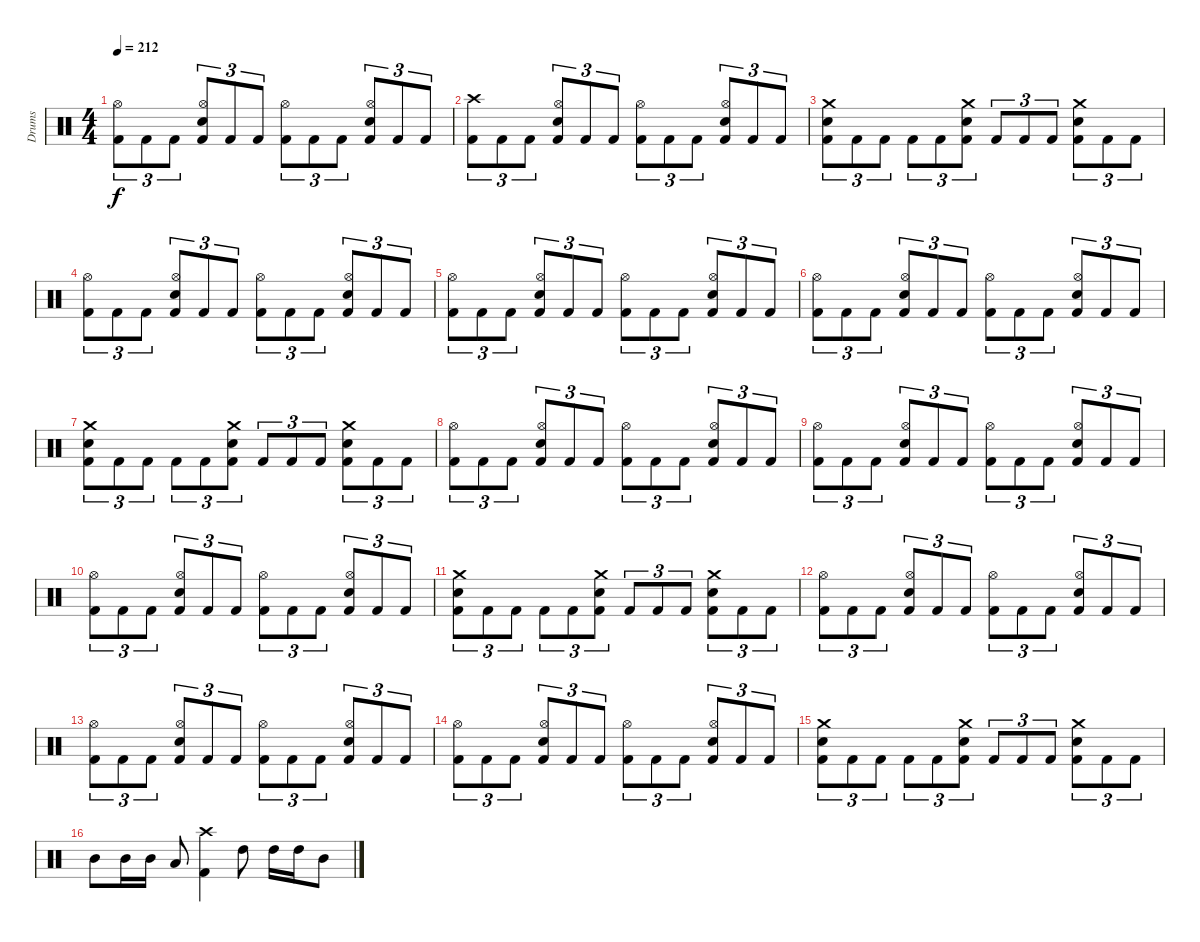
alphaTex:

\track ("Drums" "Drums") {instrument percussion}
\staff {score}
\articulation defaults
\ts (4 4)
\tempo 212
\clef neutral
\ks c
("Kick (hit) 2" "Hi-Hat (open)").8{tu (3 2) dy f} "Kick (hit) 2".8{tu (3 2)} "Kick (hit) 2".8{tu (3 2)} ("Kick (hit) 2" "Snare (hit) 2" "Hi-Hat (open)").8{tu (3 2)} "Kick (hit) 2".8{tu (3 2)} "Kick (hit) 2".8{tu (3 2)} ("Kick (hit) 2" "Hi-Hat (open)").8{tu (3 2)} "Kick (hit) 2".8{tu (3 2)} "Kick (hit) 2".8{tu (3 2)} ("Kick (hit) 2" "Snare (hit) 2" "Hi-Hat (open)").8{tu (3 2)} "Kick (hit) 2".8{tu (3 2)} "Kick (hit) 2".8{tu (3 2)} |
("Kick (hit) 2" "Crash high (hit)").8{tu (3 2)} "Kick (hit) 2".8{tu (3 2)} "Kick (hit) 2".8{tu (3 2)} ("Kick (hit) 2" "Snare (hit) 2" "Hi-Hat (open)").8{tu (3 2)} "Kick (hit) 2".8{tu (3 2)} "Kick (hit) 2".8{tu (3 2)} ("Kick (hit) 2" "Hi-Hat (open)").8{tu (3 2)} "Kick (hit) 2".8{tu (3 2)} "Kick (hit) 2".8{tu (3 2)} ("Kick (hit) 2" "Snare (hit) 2" "Hi-Hat (open)").8{tu (3 2)} "Kick (hit) 2".8{tu (3 2)} "Kick (hit) 2".8{tu (3 2)} |
("Kick (hit) 2" "Snare (hit) 2" "Crash medium (hit)").8{tu (3 2)} "Kick (hit) 2".8{tu (3 2)} "Kick (hit) 2".8{tu (3 2)} "Kick (hit) 2".8{tu (3 2)} "Kick (hit) 2".8{tu (3 2)} ("Kick (hit) 2" "Snare (hit) 2" "Crash medium (hit)").8{tu (3 2)} "Kick (hit) 2".8{tu (3 2)} "Kick (hit) 2".8{tu (3 2)} "Kick (hit) 2".8{tu (3 2)} ("Kick (hit) 2" "Snare (hit) 2" "Crash medium (hit)").8{tu (3 2)} "Kick (hit) 2".8{tu (3 2)} "Kick (hit) 2".8{tu (3 2)} |
("Kick (hit) 2" "Hi-Hat (open)").8{tu (3 2)} "Kick (hit) 2".8{tu (3 2)} "Kick (hit) 2".8{tu (3 2)} ("Kick (hit) 2" "Snare (hit) 2" "Hi-Hat (open)").8{tu (3 2)} "Kick (hit) 2".8{tu (3 2)} "Kick (hit) 2".8{tu (3 2)} ("Kick (hit) 2" "Hi-Hat (open)").8{tu (3 2)} "Kick (hit) 2".8{tu (3 2)} "Kick (hit) 2".8{tu (3 2)} ("Kick (hit) 2" "Snare (hit) 2" "Hi-Hat (open)").8{tu (3 2)} "Kick (hit) 2".8{tu (3 2)} "Kick (hit) 2".8{tu (3 2)} |
("Kick (hit) 2" "Hi-Hat (open)").8{tu (3 2)} "Kick (hit) 2".8{tu (3 2)} "Kick (hit) 2".8{tu (3 2)} ("Kick (hit) 2" "Snare (hit) 2" "Hi-Hat (open)").8{tu (3 2)} "Kick (hit) 2".8{tu (3 2)} "Kick (hit) 2".8{tu (3 2)} ("Kick (hit) 2" "Hi-Hat (open)").8{tu (3 2)} "Kick (hit) 2".8{tu (3 2)} "Kick (hit) 2".8{tu (3 2)} ("Kick (hit) 2" "Snare (hit) 2" "Hi-Hat (open)").8{tu (3 2)} "Kick (hit) 2".8{tu (3 2)} "Kick (hit) 2".8{tu (3 2)} |
("Kick (hit) 2" "Hi-Hat (open)").8{tu (3 2)} "Kick (hit) 2".8{tu (3 2)} "Kick (hit) 2".8{tu (3 2)} ("Kick (hit) 2" "Snare (hit) 2" "Hi-Hat (open)").8{tu (3 2)} "Kick (hit) 2".8{tu (3 2)} "Kick (hit) 2".8{tu (3 2)} ("Kick (hit) 2" "Hi-Hat (open)").8{tu (3 2)} "Kick (hit) 2".8{tu (3 2)} "Kick (hit) 2".8{tu (3 2)} ("Kick (hit) 2" "Snare (hit) 2" "Hi-Hat (open)").8{tu (3 2)} "Kick (hit) 2".8{tu (3 2)} "Kick (hit) 2".8{tu (3 2)} |
("Kick (hit) 2" "Snare (hit) 2" "Crash medium (hit)").8{tu (3 2)} "Kick (hit) 2".8{tu (3 2)} "Kick (hit) 2".8{tu (3 2)} "Kick (hit) 2".8{tu (3 2)} "Kick (hit) 2".8{tu (3 2)} ("Kick (hit) 2" "Snare (hit) 2" "Crash medium (hit)").8{tu (3 2)} "Kick (hit) 2".8{tu (3 2)} "Kick (hit) 2".8{tu (3 2)} "Kick (hit) 2".8{tu (3 2)} ("Kick (hit) 2" "Snare (hit) 2" "Crash medium (hit)").8{tu (3 2)} "Kick (hit) 2".8{tu (3 2)} "Kick (hit) 2".8{tu (3 2)} |
("Kick (hit) 2" "Hi-Hat (open)").8{tu (3 2)} "Kick (hit) 2".8{tu (3 2)} "Kick (hit) 2".8{tu (3 2)} ("Kick (hit) 2" "Snare (hit) 2" "Hi-Hat (open)").8{tu (3 2)} "Kick (hit) 2".8{tu (3 2)} "Kick (hit) 2".8{tu (3 2)} ("Kick (hit) 2" "Hi-Hat (open)").8{tu (3 2)} "Kick (hit) 2".8{tu (3 2)} "Kick (hit) 2".8{tu (3 2)} ("Kick (hit) 2" "Snare (hit) 2" "Hi-Hat (open)").8{tu (3 2)} "Kick (hit) 2".8{tu (3 2)} "Kick (hit) 2".8{tu (3 2)} |
("Kick (hit) 2" "Hi-Hat (open)").8{tu (3 2)} "Kick (hit) 2".8{tu (3 2)} "Kick (hit) 2".8{tu (3 2)} ("Kick (hit) 2" "Snare (hit) 2" "Hi-Hat (open)").8{tu (3 2)} "Kick (hit) 2".8{tu (3 2)} "Kick (hit) 2".8{tu (3 2)} ("Kick (hit) 2" "Hi-Hat (open)").8{tu (3 2)} "Kick (hit) 2".8{tu (3 2)} "Kick (hit) 2".8{tu (3 2)} ("Kick (hit) 2" "Snare (hit) 2" "Hi-Hat (open)").8{tu (3 2)} "Kick (hit) 2".8{tu (3 2)} "Kick (hit) 2".8{tu (3 2)} |
("Kick (hit) 2" "Hi-Hat (open)").8{tu (3 2)} "Kick (hit) 2".8{tu (3 2)} "Kick (hit) 2".8{tu (3 2)} ("Kick (hit) 2" "Snare (hit) 2" "Hi-Hat (open)").8{tu (3 2)} "Kick (hit) 2".8{tu (3 2)} "Kick (hit) 2".8{tu (3 2)} ("Kick (hit) 2" "Hi-Hat (open)").8{tu (3 2)} "Kick (hit) 2".8{tu (3 2)} "Kick (hit) 2".8{tu (3 2)} ("Kick (hit) 2" "Snare (hit) 2" "Hi-Hat (open)").8{tu (3 2)} "Kick (hit) 2".8{tu (3 2)} "Kick (hit) 2".8{tu (3 2)} |
("Kick (hit) 2" "Snare (hit) 2" "Crash medium (hit)").8{tu (3 2)} "Kick (hit) 2".8{tu (3 2)} "Kick (hit) 2".8{tu (3 2)} "Kick (hit) 2".8{tu (3 2)} "Kick (hit) 2".8{tu (3 2)} ("Kick (hit) 2" "Snare (hit) 2" "Crash medium (hit)").8{tu (3 2)} "Kick (hit) 2".8{tu (3 2)} "Kick (hit) 2".8{tu (3 2)} "Kick (hit) 2".8{tu (3 2)} ("Kick (hit) 2" "Snare (hit) 2" "Crash medium (hit)").8{tu (3 2)} "Kick (hit) 2".8{tu (3 2)} "Kick (hit) 2".8{tu (3 2)} |
("Kick (hit) 2" "Hi-Hat (open)").8{tu (3 2)} "Kick (hit) 2".8{tu (3 2)} "Kick (hit) 2".8{tu (3 2)} ("Kick (hit) 2" "Snare (hit) 2" "Hi-Hat (open)").8{tu (3 2)} "Kick (hit) 2".8{tu (3 2)} "Kick (hit) 2".8{tu (3 2)} ("Kick (hit) 2" "Hi-Hat (open)").8{tu (3 2)} "Kick (hit) 2".8{tu (3 2)} "Kick (hit) 2".8{tu (3 2)} ("Kick (hit) 2" "Snare (hit) 2" "Hi-Hat (open)").8{tu (3 2)} "Kick (hit) 2".8{tu (3 2)} "Kick (hit) 2".8{tu (3 2)} |
("Kick (hit) 2" "Hi-Hat (open)").8{tu (3 2)} "Kick (hit) 2".8{tu (3 2)} "Kick (hit) 2".8{tu (3 2)} ("Kick (hit) 2" "Snare (hit) 2" "Hi-Hat (open)").8{tu (3 2)} "Kick (hit) 2".8{tu (3 2)} "Kick (hit) 2".8{tu (3 2)} ("Kick (hit) 2" "Hi-Hat (open)").8{tu (3 2)} "Kick (hit) 2".8{tu (3 2)} "Kick (hit) 2".8{tu (3 2)} ("Kick (hit) 2" "Snare (hit) 2" "Hi-Hat (open)").8{tu (3 2)} "Kick (hit) 2".8{tu (3 2)} "Kick (hit) 2".8{tu (3 2)} |
("Kick (hit) 2" "Hi-Hat (open)").8{tu (3 2)} "Kick (hit) 2".8{tu (3 2)} "Kick (hit) 2".8{tu (3 2)} ("Kick (hit) 2" "Snare (hit) 2" "Hi-Hat (open)").8{tu (3 2)} "Kick (hit) 2".8{tu (3 2)} "Kick (hit) 2".8{tu (3 2)} ("Kick (hit) 2" "Hi-Hat (open)").8{tu (3 2)} "Kick (hit) 2".8{tu (3 2)} "Kick (hit) 2".8{tu (3 2)} ("Kick (hit) 2" "Snare (hit) 2" "Hi-Hat (open)").8{tu (3 2)} "Kick (hit) 2".8{tu (3 2)} "Kick (hit) 2".8{tu (3 2)} |
("Kick (hit) 2" "Snare (hit) 2" "Crash medium (hit)").8{tu (3 2)} "Kick (hit) 2".8{tu (3 2)} "Kick (hit) 2".8{tu (3 2)} "Kick (hit) 2".8{tu (3 2)} "Kick (hit) 2".8{tu (3 2)} ("Kick (hit) 2" "Snare (hit) 2" "Crash medium (hit)").8{tu (3 2)} "Kick (hit) 2".8{tu (3 2)} "Kick (hit) 2".8{tu (3 2)} "Kick (hit) 2".8{tu (3 2)} ("Kick (hit) 2" "Snare (hit) 2" "Crash medium (hit)").8{tu (3 2)} "Kick (hit) 2".8{tu (3 2)} "Kick (hit) 2".8{tu (3 2)} |
"Mid Tom (hit)".8 "Mid Tom (hit)".16 "Mid Tom (hit)".16 "Low Tom (hit)".8 ("Crash high (hit)" "Kick (hit) 2").4 "High Tom (hit)".8 "High Tom (hit)".16 "High Tom (hit)".16 "Mid Tom (hit)".8
